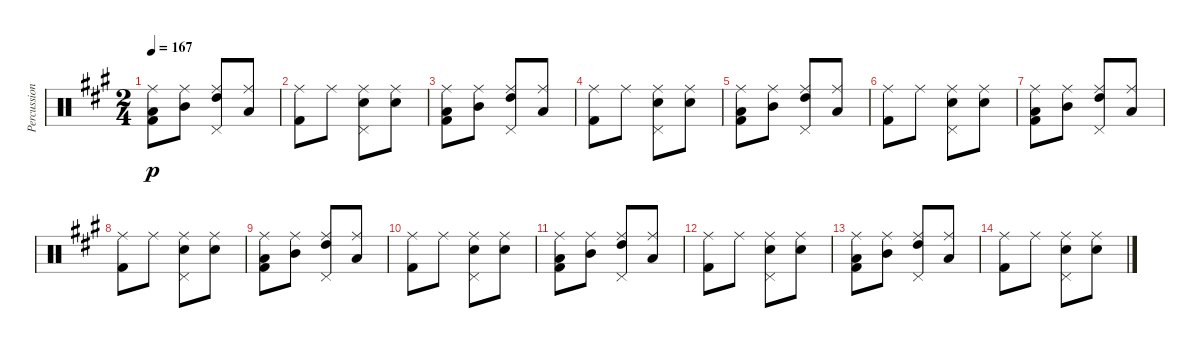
\track ("Percussion" "Percussion") {instrument percussion}
\staff {score}
\articulation defaults
\ts (2 4)
\tempo 167
\clef neutral
\ks a
("Ride (middle)" "Low Tom (hit)" "Kick (hit) 2").8{dy p} ("Ride (middle)" "Mid Tom (hit)").8 ("Ride (middle)" "High Tom (hit)" "Pedal Hi-Hat (hit)").8 ("Ride (middle)" "Low Tom (hit)").8 |
("Ride (middle)" "Kick (hit) 2").8 "Ride (middle)".8 ("Ride (middle)" "Pedal Hi-Hat (hit)" "Snare (hit) 2").8 ("Ride (middle)" "Snare (hit) 2").8 |
("Ride (middle)" "Low Tom (hit)" "Kick (hit) 2").8 ("Ride (middle)" "Mid Tom (hit)").8 ("Ride (middle)" "High Tom (hit)" "Pedal Hi-Hat (hit)").8 ("Ride (middle)" "Low Tom (hit)").8 |
("Ride (middle)" "Kick (hit) 2").8 "Ride (middle)".8 ("Ride (middle)" "Pedal Hi-Hat (hit)" "Snare (hit) 2").8 ("Ride (middle)" "Snare (hit) 2").8 |
("Ride (middle)" "Low Tom (hit)" "Kick (hit) 2").8 ("Ride (middle)" "Mid Tom (hit)").8 ("Ride (middle)" "High Tom (hit)" "Pedal Hi-Hat (hit)").8 ("Ride (middle)" "Low Tom (hit)").8 |
("Ride (middle)" "Kick (hit) 2").8 "Ride (middle)".8 ("Ride (middle)" "Pedal Hi-Hat (hit)" "Snare (hit) 2").8 ("Ride (middle)" "Snare (hit) 2").8 |
("Ride (middle)" "Low Tom (hit)" "Kick (hit) 2").8 ("Ride (middle)" "Mid Tom (hit)").8 ("Ride (middle)" "High Tom (hit)" "Pedal Hi-Hat (hit)").8 ("Ride (middle)" "Low Tom (hit)").8 |
("Ride (middle)" "Kick (hit) 2").8 "Ride (middle)".8 ("Ride (middle)" "Pedal Hi-Hat (hit)" "Snare (hit) 2").8 ("Ride (middle)" "Snare (hit) 2").8 |
("Ride (middle)" "Low Tom (hit)" "Kick (hit) 2").8 ("Ride (middle)" "Mid Tom (hit)").8 ("Ride (middle)" "High Tom (hit)" "Pedal Hi-Hat (hit)").8 ("Ride (middle)" "Low Tom (hit)").8 |
("Ride (middle)" "Kick (hit) 2").8 "Ride (middle)".8 ("Ride (middle)" "Pedal Hi-Hat (hit)" "Snare (hit) 2").8 ("Ride (middle)" "Snare (hit) 2").8 |
("Ride (middle)" "Low Tom (hit)" "Kick (hit) 2").8 ("Ride (middle)" "Mid Tom (hit)").8 ("Ride (middle)" "High Tom (hit)" "Pedal Hi-Hat (hit)").8 ("Ride (middle)" "Low Tom (hit)").8 |
("Ride (middle)" "Kick (hit) 2").8 "Ride (middle)".8 ("Ride (middle)" "Pedal Hi-Hat (hit)" "Snare (hit) 2").8 ("Ride (middle)" "Snare (hit) 2").8 |
("Ride (middle)" "Low Tom (hit)" "Kick (hit) 2").8 ("Ride (middle)" "Mid Tom (hit)").8 ("Ride (middle)" "High Tom (hit)" "Pedal Hi-Hat (hit)").8 ("Ride (middle)" "Low Tom (hit)").8 |
("Ride (middle)" "Kick (hit) 2").8 "Ride (middle)".8 ("Ride (middle)" "Pedal Hi-Hat (hit)" "Snare (hit) 2").8 ("Ride (middle)" "Snare (hit) 2").8
